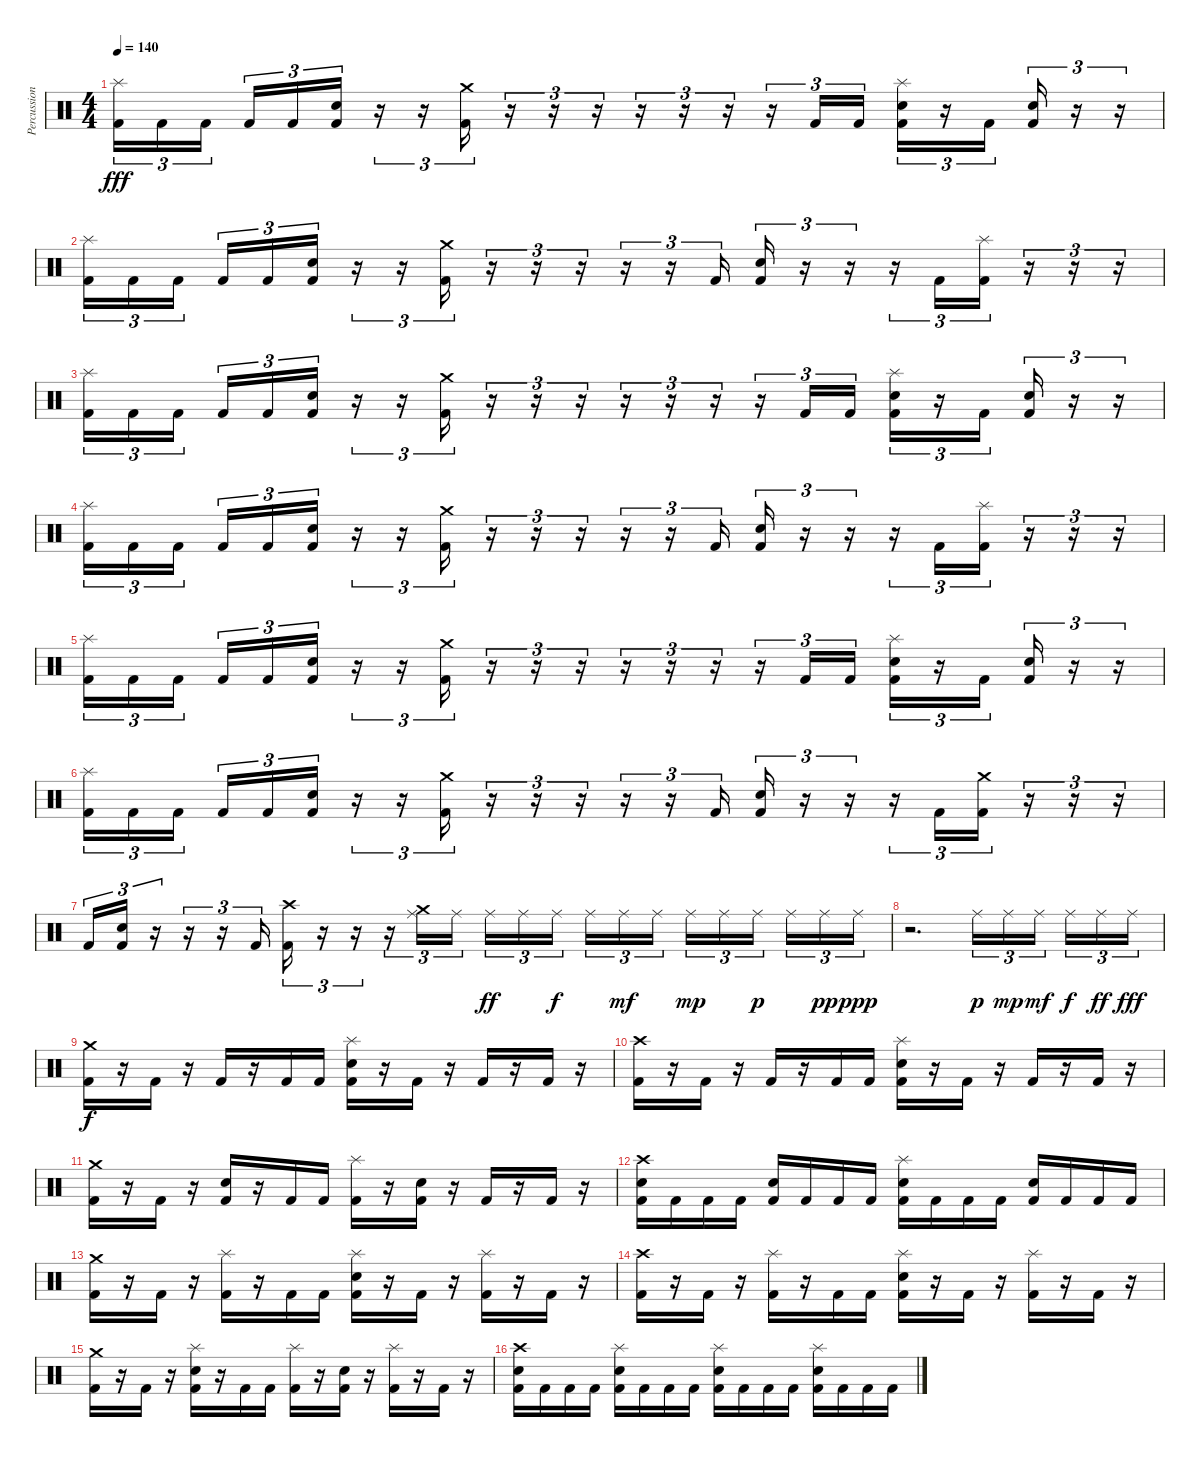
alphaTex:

\track ("Percussion" "Percussion") {instrument percussion}
\staff {score}
\articulation defaults
\ts (4 4)
\tempo 140
\clef neutral
\ks c
("Splash (hit)" "Kick (hit) 2").16{tu (3 2) dy fff} "Kick (hit) 2".16{tu (3 2)} "Kick (hit) 2".16{tu (3 2) beam splitsecondary} "Kick (hit) 2".16{tu (3 2)} "Kick (hit) 2".16{tu (3 2)} ("Electric Snare (hit)" "Kick (hit) 2").16{tu (3 2)} r.16{tu (3 2)} r.16{tu (3 2)} ("Crash medium (hit)" "Kick (hit) 2").16{tu (3 2)} r.16{tu (3 2)} r.16{tu (3 2)} r.16{tu (3 2)} r.16{tu (3 2)} r.16{tu (3 2)} r.16{tu (3 2)} r.16{tu (3 2)} "Kick (hit) 2".16{tu (3 2)} "Kick (hit) 2".16{tu (3 2)} ("Splash (hit)" "Electric Snare (hit)" "Kick (hit) 2").16{tu (3 2)} r.16{tu (3 2)} "Kick (hit) 2".16{tu (3 2)} ("Electric Snare (hit)" "Kick (hit) 2").16{tu (3 2)} r.16{tu (3 2)} r.16{tu (3 2)} |
("Splash (hit)" "Kick (hit) 2").16{tu (3 2)} "Kick (hit) 2".16{tu (3 2)} "Kick (hit) 2".16{tu (3 2) beam splitsecondary} "Kick (hit) 2".16{tu (3 2)} "Kick (hit) 2".16{tu (3 2)} ("Electric Snare (hit)" "Kick (hit) 2").16{tu (3 2)} r.16{tu (3 2)} r.16{tu (3 2)} ("Crash medium (hit)" "Kick (hit) 2").16{tu (3 2)} r.16{tu (3 2)} r.16{tu (3 2)} r.16{tu (3 2)} r.16{tu (3 2)} r.16{tu (3 2)} "Kick (hit) 2".16{tu (3 2)} ("Electric Snare (hit)" "Kick (hit) 2").16{tu (3 2)} r.16{tu (3 2)} r.16{tu (3 2)} r.16{tu (3 2)} "Kick (hit) 2".16{tu (3 2)} ("Splash (hit)" "Kick (hit) 2").16{tu (3 2)} r.16{tu (3 2)} r.16{tu (3 2)} r.16{tu (3 2)} |
("Splash (hit)" "Kick (hit) 2").16{tu (3 2)} "Kick (hit) 2".16{tu (3 2)} "Kick (hit) 2".16{tu (3 2) beam splitsecondary} "Kick (hit) 2".16{tu (3 2)} "Kick (hit) 2".16{tu (3 2)} ("Electric Snare (hit)" "Kick (hit) 2").16{tu (3 2)} r.16{tu (3 2)} r.16{tu (3 2)} ("Crash medium (hit)" "Kick (hit) 2").16{tu (3 2)} r.16{tu (3 2)} r.16{tu (3 2)} r.16{tu (3 2)} r.16{tu (3 2)} r.16{tu (3 2)} r.16{tu (3 2)} r.16{tu (3 2)} "Kick (hit) 2".16{tu (3 2)} "Kick (hit) 2".16{tu (3 2)} ("Splash (hit)" "Electric Snare (hit)" "Kick (hit) 2").16{tu (3 2)} r.16{tu (3 2)} "Kick (hit) 2".16{tu (3 2)} ("Electric Snare (hit)" "Kick (hit) 2").16{tu (3 2)} r.16{tu (3 2)} r.16{tu (3 2)} |
("Splash (hit)" "Kick (hit) 2").16{tu (3 2)} "Kick (hit) 2".16{tu (3 2)} "Kick (hit) 2".16{tu (3 2) beam splitsecondary} "Kick (hit) 2".16{tu (3 2)} "Kick (hit) 2".16{tu (3 2)} ("Electric Snare (hit)" "Kick (hit) 2").16{tu (3 2)} r.16{tu (3 2)} r.16{tu (3 2)} ("Crash medium (hit)" "Kick (hit) 2").16{tu (3 2)} r.16{tu (3 2)} r.16{tu (3 2)} r.16{tu (3 2)} r.16{tu (3 2)} r.16{tu (3 2)} "Kick (hit) 2".16{tu (3 2)} ("Electric Snare (hit)" "Kick (hit) 2").16{tu (3 2)} r.16{tu (3 2)} r.16{tu (3 2)} r.16{tu (3 2)} "Kick (hit) 2".16{tu (3 2)} ("Splash (hit)" "Kick (hit) 2").16{tu (3 2)} r.16{tu (3 2)} r.16{tu (3 2)} r.16{tu (3 2)} |
("Splash (hit)" "Kick (hit) 2").16{tu (3 2)} "Kick (hit) 2".16{tu (3 2)} "Kick (hit) 2".16{tu (3 2) beam splitsecondary} "Kick (hit) 2".16{tu (3 2)} "Kick (hit) 2".16{tu (3 2)} ("Electric Snare (hit)" "Kick (hit) 2").16{tu (3 2)} r.16{tu (3 2)} r.16{tu (3 2)} ("Crash medium (hit)" "Kick (hit) 2").16{tu (3 2)} r.16{tu (3 2)} r.16{tu (3 2)} r.16{tu (3 2)} r.16{tu (3 2)} r.16{tu (3 2)} r.16{tu (3 2)} r.16{tu (3 2)} "Kick (hit) 2".16{tu (3 2)} "Kick (hit) 2".16{tu (3 2)} ("Splash (hit)" "Electric Snare (hit)" "Kick (hit) 2").16{tu (3 2)} r.16{tu (3 2)} "Kick (hit) 2".16{tu (3 2)} ("Electric Snare (hit)" "Kick (hit) 2").16{tu (3 2)} r.16{tu (3 2)} r.16{tu (3 2)} |
("Splash (hit)" "Kick (hit) 2").16{tu (3 2)} "Kick (hit) 2".16{tu (3 2)} "Kick (hit) 2".16{tu (3 2) beam splitsecondary} "Kick (hit) 2".16{tu (3 2)} "Kick (hit) 2".16{tu (3 2)} ("Electric Snare (hit)" "Kick (hit) 2").16{tu (3 2)} r.16{tu (3 2)} r.16{tu (3 2)} ("Crash medium (hit)" "Kick (hit) 2").16{tu (3 2)} r.16{tu (3 2)} r.16{tu (3 2)} r.16{tu (3 2)} r.16{tu (3 2)} r.16{tu (3 2)} "Kick (hit) 2".16{tu (3 2)} ("Electric Snare (hit)" "Kick (hit) 2").16{tu (3 2)} r.16{tu (3 2)} r.16{tu (3 2)} r.16{tu (3 2)} "Kick (hit) 2".16{tu (3 2)} ("Crash medium (hit)" "Kick (hit) 2").16{tu (3 2)} r.16{tu (3 2)} r.16{tu (3 2)} r.16{tu (3 2)} |
"Kick (hit) 2".16{tu (3 2)} ("Electric Snare (hit)" "Kick (hit) 2").16{tu (3 2)} r.16{tu (3 2)} r.16{tu (3 2)} r.16{tu (3 2)} "Kick (hit) 2".16{tu (3 2)} ("Crash high (hit)" "Kick (hit) 2").16{tu (3 2)} r.16{tu (3 2)} r.16{tu (3 2)} r.16{tu (3 2)} ("Crash medium (hit)" "Ride (middle)").16{tu (3 2)} "Ride (middle)".16{tu (3 2)} "Ride (middle)".16{tu (3 2) dy ff} "Ride (middle)".16{tu (3 2)} "Ride (middle)".16{tu (3 2) dy f beam splitsecondary} "Ride (middle)".16{tu (3 2)} "Ride (middle)".16{tu (3 2) dy mf} "Ride (middle)".16{tu (3 2)} "Ride (middle)".16{tu (3 2) dy mp} "Ride (middle)".16{tu (3 2)} "Ride (middle)".16{tu (3 2) dy p beam splitsecondary} "Ride (middle)".16{tu (3 2)} "Ride (middle)".16{tu (3 2) dy pp} "Ride (middle)".16{tu (3 2) dy ppp} |
r.2{d} "Ride (middle)".16{tu (3 2) dy p} "Ride (middle)".16{tu (3 2) dy mp} "Ride (middle)".16{tu (3 2) dy mf beam splitsecondary} "Ride (middle)".16{tu (3 2) dy f} "Ride (middle)".16{tu (3 2) dy ff} "Ride (middle)".16{tu (3 2) dy fff} |
("Crash medium (hit)" "Kick (hit) 2").16{dy f} r.16 "Kick (hit) 2".16 r.16 "Kick (hit) 2".16 r.16 "Kick (hit) 2".16 "Kick (hit) 2".16 ("Splash (hit)" "Electric Snare (hit)" "Kick (hit) 2").16 r.16 "Kick (hit) 2".16 r.16 "Kick (hit) 2".16 r.16 "Kick (hit) 2".16 r.16 |
("Crash high (hit)" "Kick (hit) 2").16 r.16 "Kick (hit) 2".16 r.16 "Kick (hit) 2".16 r.16 "Kick (hit) 2".16 "Kick (hit) 2".16 ("Splash (hit)" "Electric Snare (hit)" "Kick (hit) 2").16 r.16 "Kick (hit) 2".16 r.16 "Kick (hit) 2".16 r.16 "Kick (hit) 2".16 r.16 |
("Crash medium (hit)" "Kick (hit) 2").16 r.16 "Kick (hit) 2".16 r.16 ("Electric Snare (hit)" "Kick (hit) 2").16 r.16 "Kick (hit) 2".16 "Kick (hit) 2".16 ("Splash (hit)" "Kick (hit) 2").16 r.16 ("Electric Snare (hit)" "Kick (hit) 2").16 r.16 "Kick (hit) 2".16 r.16 "Kick (hit) 2".16 r.16 |
("Crash high (hit)" "Electric Snare (hit)" "Kick (hit) 2").16 "Kick (hit) 2".16 "Kick (hit) 2".16 "Kick (hit) 2".16 ("Electric Snare (hit)" "Kick (hit) 2").16 "Kick (hit) 2".16 "Kick (hit) 2".16 "Kick (hit) 2".16 ("Splash (hit)" "Electric Snare (hit)" "Kick (hit) 2").16 "Kick (hit) 2".16 "Kick (hit) 2".16 "Kick (hit) 2".16 ("Electric Snare (hit)" "Kick (hit) 2").16 "Kick (hit) 2".16 "Kick (hit) 2".16 "Kick (hit) 2".16 |
("Crash medium (hit)" "Kick (hit) 2").16 r.16 "Kick (hit) 2".16 r.16 ("Splash (hit)" "Kick (hit) 2").16 r.16 "Kick (hit) 2".16 "Kick (hit) 2".16 ("Splash (hit)" "Electric Snare (hit)" "Kick (hit) 2").16 r.16 "Kick (hit) 2".16 r.16 ("Splash (hit)" "Kick (hit) 2").16 r.16 "Kick (hit) 2".16 r.16 |
("Crash high (hit)" "Kick (hit) 2").16 r.16 "Kick (hit) 2".16 r.16 ("Splash (hit)" "Kick (hit) 2").16 r.16 "Kick (hit) 2".16 "Kick (hit) 2".16 ("Splash (hit)" "Electric Snare (hit)" "Kick (hit) 2").16 r.16 "Kick (hit) 2".16 r.16 ("Splash (hit)" "Kick (hit) 2").16 r.16 "Kick (hit) 2".16 r.16 |
("Crash medium (hit)" "Kick (hit) 2").16 r.16 "Kick (hit) 2".16 r.16 ("Splash (hit)" "Electric Snare (hit)" "Kick (hit) 2").16 r.16 "Kick (hit) 2".16 "Kick (hit) 2".16 ("Splash (hit)" "Kick (hit) 2").16 r.16 ("Electric Snare (hit)" "Kick (hit) 2").16 r.16 ("Splash (hit)" "Kick (hit) 2").16 r.16 "Kick (hit) 2".16 r.16 |
("Crash high (hit)" "Electric Snare (hit)" "Kick (hit) 2").16 "Kick (hit) 2".16 "Kick (hit) 2".16 "Kick (hit) 2".16 ("Splash (hit)" "Electric Snare (hit)" "Kick (hit) 2").16 "Kick (hit) 2".16 "Kick (hit) 2".16 "Kick (hit) 2".16 ("Splash (hit)" "Electric Snare (hit)" "Kick (hit) 2").16 "Kick (hit) 2".16 "Kick (hit) 2".16 "Kick (hit) 2".16 ("Splash (hit)" "Electric Snare (hit)" "Kick (hit) 2").16 "Kick (hit) 2".16 "Kick (hit) 2".16 "Kick (hit) 2".16
